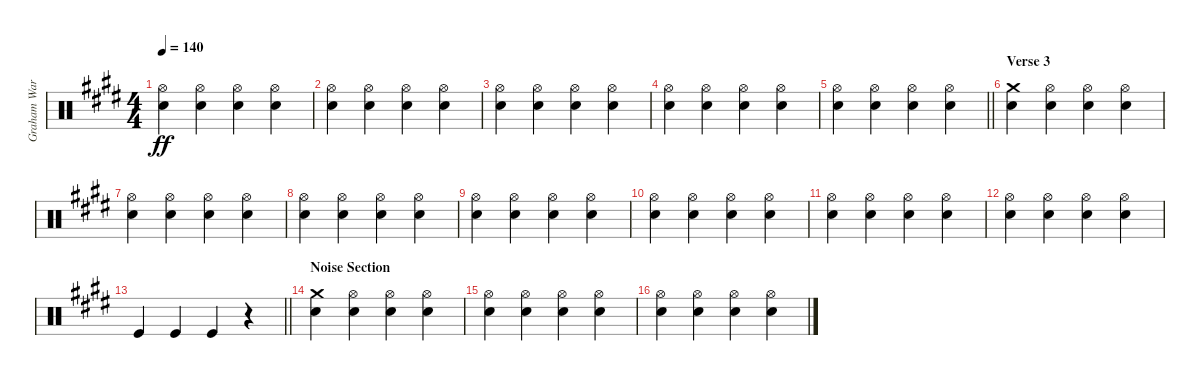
\track ("Graham Ward (Drums)" "Graham War") {instrument percussion}
\staff {score}
\articulation defaults
\ts (4 4)
\tempo 140
\clef neutral
\ks e
("Snare (hit) 2" "Hi-Hat (open)").4{dy ff} ("Snare (hit) 2" "Hi-Hat (open)").4 ("Snare (hit) 2" "Hi-Hat (open)").4 ("Snare (hit) 2" "Hi-Hat (open)").4 |
("Snare (hit) 2" "Hi-Hat (open)").4 ("Snare (hit) 2" "Hi-Hat (open)").4 ("Snare (hit) 2" "Hi-Hat (open)").4 ("Snare (hit) 2" "Hi-Hat (open)").4 |
("Snare (hit) 2" "Hi-Hat (open)").4 ("Snare (hit) 2" "Hi-Hat (open)").4 ("Snare (hit) 2" "Hi-Hat (open)").4 ("Snare (hit) 2" "Hi-Hat (open)").4 |
("Snare (hit) 2" "Hi-Hat (open)").4 ("Snare (hit) 2" "Hi-Hat (open)").4 ("Snare (hit) 2" "Hi-Hat (open)").4 ("Snare (hit) 2" "Hi-Hat (open)").4 |
\barLineRight lightlight
("Snare (hit) 2" "Hi-Hat (open)").4 ("Snare (hit) 2" "Hi-Hat (open)").4 ("Snare (hit) 2" "Hi-Hat (open)").4 ("Snare (hit) 2" "Hi-Hat (open)").4 |
\section ("" "Verse 3")
("Crash medium (hit)" "Snare (hit) 2").4 ("Snare (hit) 2" "Hi-Hat (open)").4 ("Snare (hit) 2" "Hi-Hat (open)").4 ("Snare (hit) 2" "Hi-Hat (open)").4 |
("Snare (hit) 2" "Hi-Hat (open)").4 ("Snare (hit) 2" "Hi-Hat (open)").4 ("Snare (hit) 2" "Hi-Hat (open)").4 ("Snare (hit) 2" "Hi-Hat (open)").4 |
("Snare (hit) 2" "Hi-Hat (open)").4 ("Snare (hit) 2" "Hi-Hat (open)").4 ("Snare (hit) 2" "Hi-Hat (open)").4 ("Snare (hit) 2" "Hi-Hat (open)").4 |
("Snare (hit) 2" "Hi-Hat (open)").4 ("Snare (hit) 2" "Hi-Hat (open)").4 ("Snare (hit) 2" "Hi-Hat (open)").4 ("Snare (hit) 2" "Hi-Hat (open)").4 |
("Snare (hit) 2" "Hi-Hat (open)").4 ("Snare (hit) 2" "Hi-Hat (open)").4 ("Snare (hit) 2" "Hi-Hat (open)").4 ("Snare (hit) 2" "Hi-Hat (open)").4 |
("Snare (hit) 2" "Hi-Hat (open)").4 ("Snare (hit) 2" "Hi-Hat (open)").4 ("Snare (hit) 2" "Hi-Hat (open)").4 ("Snare (hit) 2" "Hi-Hat (open)").4 |
("Snare (hit) 2" "Hi-Hat (open)").4 ("Snare (hit) 2" "Hi-Hat (open)").4 ("Snare (hit) 2" "Hi-Hat (open)").4 ("Snare (hit) 2" "Hi-Hat (open)").4 |
\barLineRight lightlight "Kick (hit)".4 "Kick (hit)".4 "Kick (hit)".4
r.4 |
\section ("" "Noise Section")
("Crash medium (hit)" "Snare (hit) 2").4 ("Snare (hit) 2" "Hi-Hat (open)").4 ("Snare (hit) 2" "Hi-Hat (open)").4 ("Snare (hit) 2" "Hi-Hat (open)").4 |
("Snare (hit) 2" "Hi-Hat (open)").4 ("Snare (hit) 2" "Hi-Hat (open)").4 ("Snare (hit) 2" "Hi-Hat (open)").4 ("Snare (hit) 2" "Hi-Hat (open)").4 |
("Snare (hit) 2" "Hi-Hat (open)").4 ("Snare (hit) 2" "Hi-Hat (open)").4 ("Snare (hit) 2" "Hi-Hat (open)").4 ("Snare (hit) 2" "Hi-Hat (open)").4
